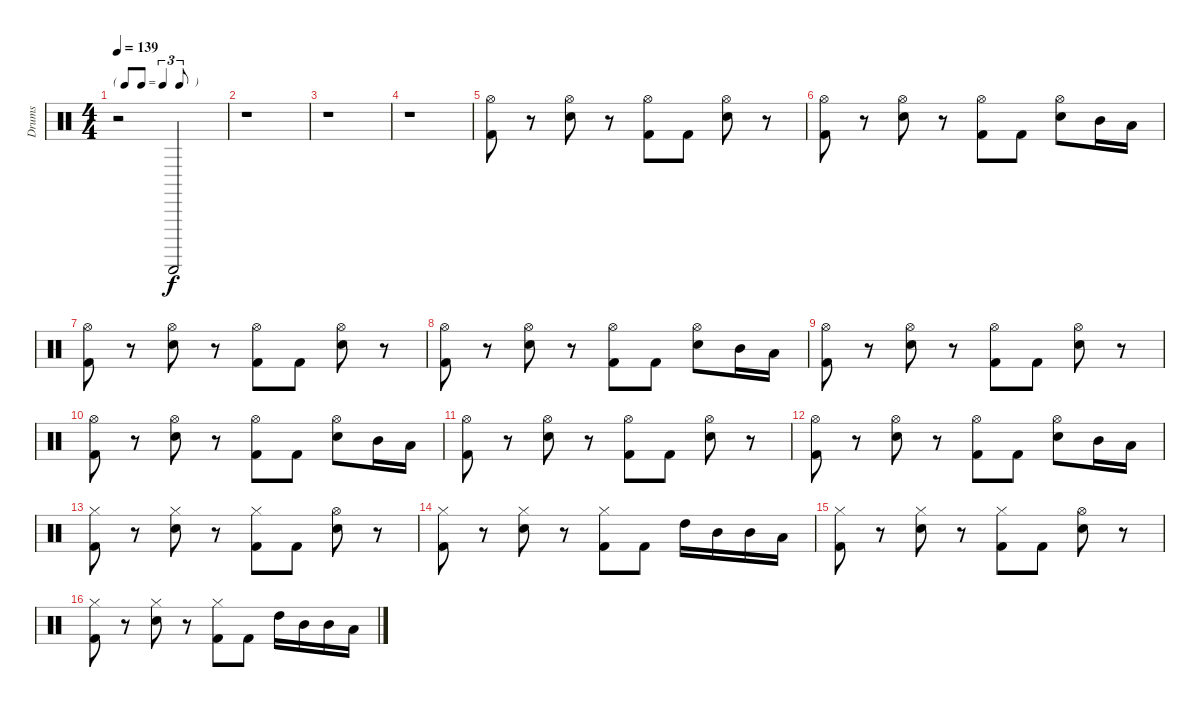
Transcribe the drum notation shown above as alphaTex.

\track ("Drums" "Drums") {instrument percussion}
\staff {score}
\articulation defaults
\ts (4 4)
\tf triplet8th
\tempo 139
\clef neutral
\ks c
r.2{dy f} "Guiro (scrap-return)".2 |
r.1 |
r.1 |
r.1 |
("Hi-Hat (open)" "Kick (hit) 2").8 r.8 ("Hi-Hat (open)" "Snare (hit) 2").8 r.8 ("Hi-Hat (open)" "Kick (hit) 2").8 "Kick (hit) 2".8 ("Hi-Hat (open)" "Snare (hit) 2").8 r.8 |
("Hi-Hat (open)" "Kick (hit) 2").8 r.8 ("Hi-Hat (open)" "Snare (hit) 2").8 r.8 ("Hi-Hat (open)" "Kick (hit) 2").8 "Kick (hit) 2".8 ("Hi-Hat (open)" "Snare (hit) 2").8 "Mid Tom (hit)".16 "Low Tom (hit)".16 |
("Hi-Hat (open)" "Kick (hit) 2").8 r.8 ("Hi-Hat (open)" "Snare (hit) 2").8 r.8 ("Hi-Hat (open)" "Kick (hit) 2").8 "Kick (hit) 2".8 ("Hi-Hat (open)" "Snare (hit) 2").8 r.8 |
("Hi-Hat (open)" "Kick (hit) 2").8 r.8 ("Hi-Hat (open)" "Snare (hit) 2").8 r.8 ("Hi-Hat (open)" "Kick (hit) 2").8 "Kick (hit) 2".8 ("Hi-Hat (open)" "Snare (hit) 2").8 "Mid Tom (hit)".16 "Low Tom (hit)".16 |
("Hi-Hat (open)" "Kick (hit) 2").8 r.8 ("Hi-Hat (open)" "Snare (hit) 2").8 r.8 ("Hi-Hat (open)" "Kick (hit) 2").8 "Kick (hit) 2".8 ("Hi-Hat (open)" "Snare (hit) 2").8 r.8 |
("Hi-Hat (open)" "Kick (hit) 2").8 r.8 ("Hi-Hat (open)" "Snare (hit) 2").8 r.8 ("Hi-Hat (open)" "Kick (hit) 2").8 "Kick (hit) 2".8 ("Hi-Hat (open)" "Snare (hit) 2").8 "Mid Tom (hit)".16 "Low Tom (hit)".16 |
("Hi-Hat (open)" "Kick (hit) 2").8 r.8 ("Hi-Hat (open)" "Snare (hit) 2").8 r.8 ("Hi-Hat (open)" "Kick (hit) 2").8 "Kick (hit) 2".8 ("Hi-Hat (open)" "Snare (hit) 2").8 r.8 |
("Hi-Hat (open)" "Kick (hit) 2").8 r.8 ("Hi-Hat (open)" "Snare (hit) 2").8 r.8 ("Hi-Hat (open)" "Kick (hit) 2").8 "Kick (hit) 2".8 ("Hi-Hat (open)" "Snare (hit) 2").8 "Mid Tom (hit)".16 "Low Tom (hit)".16 |
("Hi-Hat (closed)" "Kick (hit) 2").8 r.8 ("Hi-Hat (closed)" "Snare (hit) 2").8 r.8 ("Hi-Hat (closed)" "Kick (hit) 2").8 "Kick (hit) 2".8 ("Hi-Hat (open)" "Snare (hit) 2").8 r.8 |
("Hi-Hat (closed)" "Kick (hit) 2").8 r.8 ("Hi-Hat (closed)" "Snare (hit) 2").8 r.8 ("Hi-Hat (closed)" "Kick (hit) 2").8 "Kick (hit) 2".8 "High Tom (hit)".16 "Mid Tom (hit)".16 "Mid Tom (hit)".16 "Low Tom (hit)".16 |
("Hi-Hat (closed)" "Kick (hit) 2").8 r.8 ("Hi-Hat (closed)" "Snare (hit) 2").8 r.8 ("Hi-Hat (closed)" "Kick (hit) 2").8 "Kick (hit) 2".8 ("Hi-Hat (open)" "Snare (hit) 2").8 r.8 |
("Hi-Hat (closed)" "Kick (hit) 2").8 r.8 ("Hi-Hat (closed)" "Snare (hit) 2").8 r.8 ("Hi-Hat (closed)" "Kick (hit) 2").8 "Kick (hit) 2".8 "High Tom (hit)".16 "Mid Tom (hit)".16 "Mid Tom (hit)".16 "Low Tom (hit)".16
